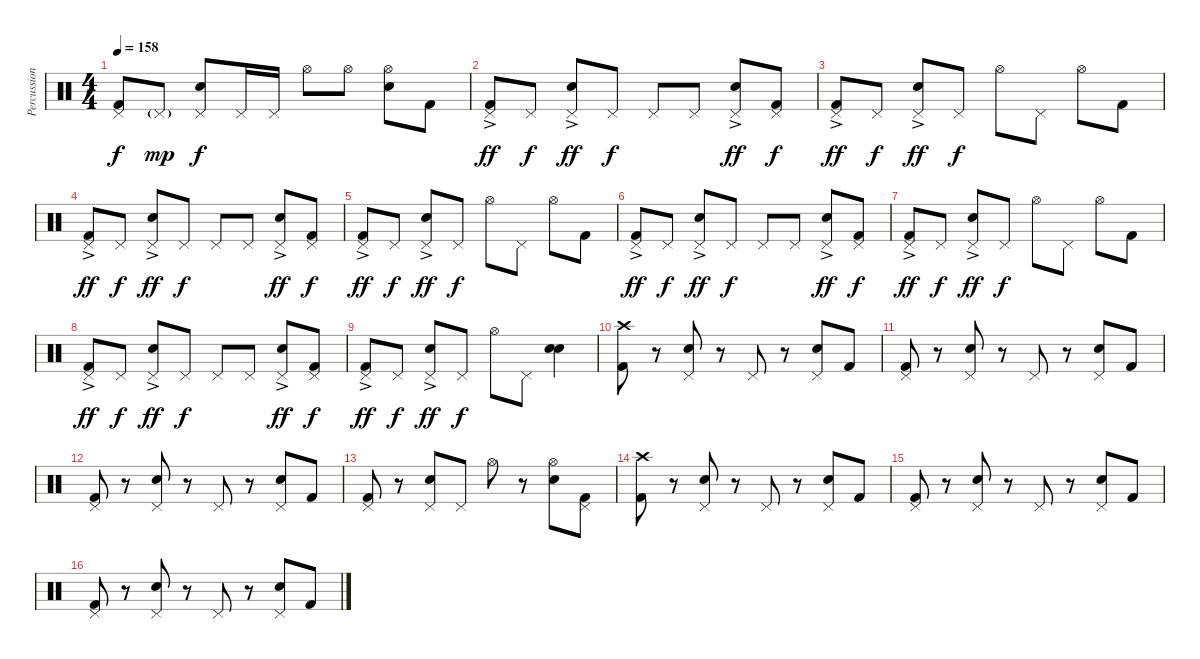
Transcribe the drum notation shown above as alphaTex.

\track ("Percussion" "Percussion") {instrument percussion bank 78}
\staff {score}
\articulation defaults
\ts (4 4)
\tempo 158
\clef neutral
\ks c
("Pedal Hi-Hat (hit)" "Kick (hit) 2").8{dy f} "Pedal Hi-Hat (hit)"{g}.8{dy mp} ("Pedal Hi-Hat (hit)" "Electric Snare (hit)").8{dy f} "Pedal Hi-Hat (hit)".16 "Pedal Hi-Hat (hit)".16 "Hi-Hat (open)".8 "Hi-Hat (open)".8 ("Hi-Hat (open)" "Electric Snare (hit)").8 "Kick (hit) 2".8 |
("Pedal Hi-Hat (hit)" "Kick (hit) 2"{ac}).8{dy ff} "Pedal Hi-Hat (hit)".8{dy f} ("Pedal Hi-Hat (hit)"{ac} "Electric Snare (hit)").8{dy ff} "Pedal Hi-Hat (hit)".8{dy f} "Pedal Hi-Hat (hit)".8 "Pedal Hi-Hat (hit)".8 ("Pedal Hi-Hat (hit)"{ac} "Electric Snare (hit)").8{dy ff} ("Pedal Hi-Hat (hit)" "Kick (hit) 2").8{dy f} |
("Pedal Hi-Hat (hit)" "Kick (hit) 2"{ac}).8{dy ff} "Pedal Hi-Hat (hit)".8{dy f} ("Pedal Hi-Hat (hit)"{ac} "Electric Snare (hit)").8{dy ff} "Pedal Hi-Hat (hit)".8{dy f} "Hi-Hat (open)".8 "Pedal Hi-Hat (hit)".8 "Hi-Hat (open)".8 "Kick (hit) 2".8 |
("Pedal Hi-Hat (hit)" "Kick (hit) 2"{ac}).8{dy ff} "Pedal Hi-Hat (hit)".8{dy f} ("Pedal Hi-Hat (hit)"{ac} "Electric Snare (hit)").8{dy ff} "Pedal Hi-Hat (hit)".8{dy f} "Pedal Hi-Hat (hit)".8 "Pedal Hi-Hat (hit)".8 ("Pedal Hi-Hat (hit)"{ac} "Electric Snare (hit)").8{dy ff} ("Pedal Hi-Hat (hit)" "Kick (hit) 2").8{dy f} |
("Pedal Hi-Hat (hit)" "Kick (hit) 2"{ac}).8{dy ff} "Pedal Hi-Hat (hit)".8{dy f} ("Pedal Hi-Hat (hit)"{ac} "Electric Snare (hit)").8{dy ff} "Pedal Hi-Hat (hit)".8{dy f} "Hi-Hat (open)".8 "Pedal Hi-Hat (hit)".8 "Hi-Hat (open)".8 "Kick (hit) 2".8 |
("Pedal Hi-Hat (hit)" "Kick (hit) 2"{ac}).8{dy ff} "Pedal Hi-Hat (hit)".8{dy f} ("Pedal Hi-Hat (hit)"{ac} "Electric Snare (hit)").8{dy ff} "Pedal Hi-Hat (hit)".8{dy f} "Pedal Hi-Hat (hit)".8 "Pedal Hi-Hat (hit)".8 ("Pedal Hi-Hat (hit)"{ac} "Electric Snare (hit)").8{dy ff} ("Pedal Hi-Hat (hit)" "Kick (hit) 2").8{dy f} |
("Pedal Hi-Hat (hit)" "Kick (hit) 2"{ac}).8{dy ff} "Pedal Hi-Hat (hit)".8{dy f} ("Pedal Hi-Hat (hit)"{ac} "Electric Snare (hit)").8{dy ff} "Pedal Hi-Hat (hit)".8{dy f} "Hi-Hat (open)".8 "Pedal Hi-Hat (hit)".8 "Hi-Hat (open)".8 "Kick (hit) 2".8 |
("Pedal Hi-Hat (hit)" "Kick (hit) 2"{ac}).8{dy ff} "Pedal Hi-Hat (hit)".8{dy f} ("Pedal Hi-Hat (hit)"{ac} "Electric Snare (hit)").8{dy ff} "Pedal Hi-Hat (hit)".8{dy f} "Pedal Hi-Hat (hit)".8 "Pedal Hi-Hat (hit)".8 ("Pedal Hi-Hat (hit)"{ac} "Electric Snare (hit)").8{dy ff} ("Pedal Hi-Hat (hit)" "Kick (hit) 2").8{dy f} |
("Pedal Hi-Hat (hit)" "Kick (hit) 2"{ac}).8{dy ff} "Pedal Hi-Hat (hit)".8{dy f} ("Pedal Hi-Hat (hit)"{ac} "Electric Snare (hit)").8{dy ff} "Pedal Hi-Hat (hit)".8{dy f} "Hi-Hat (open)".8 "Pedal Hi-Hat (hit)".8 ("Electric Snare (hit)" "Electric Snare (hit)").4 |
("Crash high (hit)" "Kick (hit) 2").8 r.8 ("Pedal Hi-Hat (hit)" "Electric Snare (hit)").8 r.8 "Pedal Hi-Hat (hit)".8 r.8 ("Pedal Hi-Hat (hit)" "Electric Snare (hit)").8 "Kick (hit) 2".8 |
("Pedal Hi-Hat (hit)" "Kick (hit) 2").8 r.8 ("Pedal Hi-Hat (hit)" "Electric Snare (hit)").8 r.8 "Pedal Hi-Hat (hit)".8 r.8 ("Pedal Hi-Hat (hit)" "Electric Snare (hit)").8 "Kick (hit) 2".8 |
("Pedal Hi-Hat (hit)" "Kick (hit) 2").8 r.8 ("Pedal Hi-Hat (hit)" "Electric Snare (hit)").8 r.8 "Pedal Hi-Hat (hit)".8 r.8 ("Pedal Hi-Hat (hit)" "Electric Snare (hit)").8 "Kick (hit) 2".8 |
("Pedal Hi-Hat (hit)" "Kick (hit) 2").8 r.8 ("Pedal Hi-Hat (hit)" "Electric Snare (hit)").8 "Pedal Hi-Hat (hit)".8 "Hi-Hat (open)".8 r.8 ("Hi-Hat (open)" "Electric Snare (hit)").8 ("Pedal Hi-Hat (hit)" "Kick (hit) 2").8 |
("Crash high (hit)" "Kick (hit) 2").8 r.8 ("Pedal Hi-Hat (hit)" "Electric Snare (hit)").8 r.8 "Pedal Hi-Hat (hit)".8 r.8 ("Pedal Hi-Hat (hit)" "Electric Snare (hit)").8 "Kick (hit) 2".8 |
("Pedal Hi-Hat (hit)" "Kick (hit) 2").8 r.8 ("Pedal Hi-Hat (hit)" "Electric Snare (hit)").8 r.8 "Pedal Hi-Hat (hit)".8 r.8 ("Pedal Hi-Hat (hit)" "Electric Snare (hit)").8 "Kick (hit) 2".8 |
("Pedal Hi-Hat (hit)" "Kick (hit) 2").8 r.8 ("Pedal Hi-Hat (hit)" "Electric Snare (hit)").8 r.8 "Pedal Hi-Hat (hit)".8 r.8 ("Pedal Hi-Hat (hit)" "Electric Snare (hit)").8 "Kick (hit) 2".8
